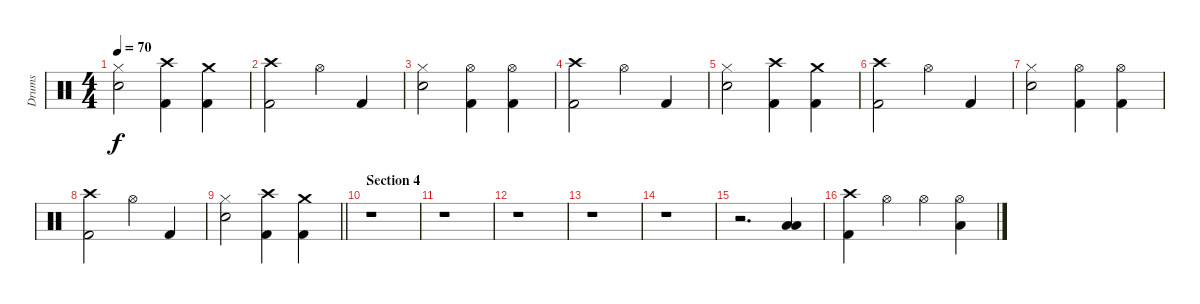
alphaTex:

\track ("Drums" "Drums") {instrument percussion}
\staff {score}
\articulation defaults
\ts (4 4)
\tempo 70
\clef neutral
\ks c
("Hi-Hat (closed)" "Electric Snare (hit)").2{dy f} ("Crash high (hit)" "Kick (hit) 2").4 ("Crash medium (hit)" "Kick (hit) 2").4 |
("Crash high (hit)" "Kick (hit) 2").2 "Hi-Hat (open)".4 "Kick (hit) 2".4 |
("Hi-Hat (closed)" "Electric Snare (hit)").2 ("Hi-Hat (open)" "Kick (hit) 2").4 ("Hi-Hat (open)" "Kick (hit) 2").4 |
("Crash high (hit)" "Kick (hit) 2").2 "Hi-Hat (open)".4 "Kick (hit) 2".4 |
("Hi-Hat (closed)" "Electric Snare (hit)").2 ("Crash high (hit)" "Kick (hit) 2").4 ("Crash medium (hit)" "Kick (hit) 2").4 |
("Crash high (hit)" "Kick (hit) 2").2 "Hi-Hat (open)".4 "Kick (hit) 2".4 |
("Hi-Hat (closed)" "Electric Snare (hit)").2 ("Hi-Hat (open)" "Kick (hit) 2").4 ("Hi-Hat (open)" "Kick (hit) 2").4 |
("Crash high (hit)" "Kick (hit) 2").2 "Hi-Hat (open)".4 "Kick (hit) 2".4 |
\barLineRight lightlight
("Hi-Hat (closed)" "Electric Snare (hit)").2 ("Crash high (hit)" "Kick (hit) 2").4 ("Crash medium (hit)" "Kick (hit) 2").4 |
\section ("" "Section 4")
r.1 |
r.1 |
r.1 |
r.1 |
r.1 |
r.2{d} ("Low Floor Tom (hit)" "Low Floor Tom (hit)").4 |
("Crash high (hit)" "Kick (hit) 2").4 "Hi-Hat (open)".4 "Hi-Hat (open)".4 ("Hi-Hat (open)" "Low Floor Tom (hit)").4
